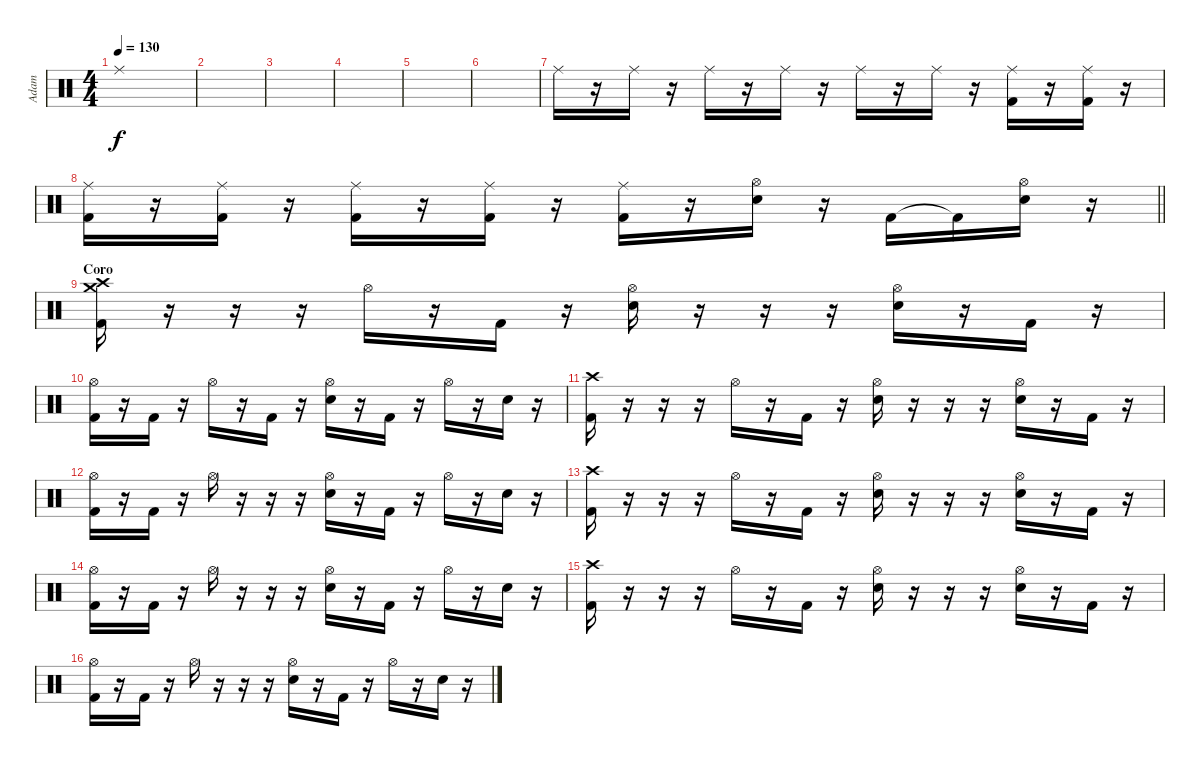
\track ("Adam" "Adam") {instrument percussion}
\staff {score}
\articulation defaults
\ts (4 4)
\tempo 130
\clef neutral
\ks c "Ride (middle)".1{dy f}
|
|
|
|
|
|
"Ride (middle)".16 r.16 "Ride (middle)".16 r.16 "Ride (middle)".16 r.16 "Ride (middle)".16 r.16 "Ride (middle)".16 r.16 "Ride (middle)".16 r.16 ("Ride (middle)" "Kick (hit) 2").16 r.16 ("Ride (middle)" "Kick (hit) 2").16 r.16 |
\barLineRight lightlight
("Ride (middle)" "Kick (hit) 2").16 r.16 ("Ride (middle)" "Kick (hit) 2").16 r.16 ("Ride (middle)" "Kick (hit) 2").16 r.16 ("Ride (middle)" "Kick (hit) 2").16 r.16 ("Ride (middle)" "Kick (hit) 2").16 r.16 ("Hi-Hat (open)" "Snare (hit) 2").16 r.16 "Kick (hit) 2".16 "Kick (hit) 2"{t}.16 ("Hi-Hat (open)" "Snare (hit) 2").16 r.16 |
\section ("" "Coro")
("Crash high (hit)" "Crash medium (hit)" "Kick (hit) 2").16 r.16 r.16 r.16 "Hi-Hat (open)".16 r.16 "Kick (hit) 2".16 r.16 ("Hi-Hat (open)" "Snare (hit) 2").16 r.16 r.16 r.16 ("Hi-Hat (open)" "Snare (hit) 2").16 r.16 "Kick (hit) 2".16 r.16 |
("Hi-Hat (open)" "Kick (hit) 2").16 r.16 "Kick (hit) 2".16 r.16 "Hi-Hat (open)".16 r.16 "Kick (hit) 2".16 r.16 ("Hi-Hat (open)" "Snare (hit) 2").16 r.16 "Kick (hit) 2".16 r.16 "Hi-Hat (open)".16 r.16 "Snare (hit) 2".16 r.16 |
("Crash high (hit)" "Kick (hit) 2").16 r.16 r.16 r.16 "Hi-Hat (open)".16 r.16 "Kick (hit) 2".16 r.16 ("Hi-Hat (open)" "Snare (hit) 2").16 r.16 r.16 r.16 ("Hi-Hat (open)" "Snare (hit) 2").16 r.16 "Kick (hit) 2".16 r.16 |
("Hi-Hat (open)" "Kick (hit) 2").16 r.16 "Kick (hit) 2".16 r.16 "Hi-Hat (open)".16 r.16 r.16 r.16 ("Hi-Hat (open)" "Snare (hit) 2").16 r.16 "Kick (hit) 2".16 r.16 "Hi-Hat (open)".16 r.16 "Snare (hit) 2".16 r.16 |
("Crash high (hit)" "Kick (hit) 2").16 r.16 r.16 r.16 "Hi-Hat (open)".16 r.16 "Kick (hit) 2".16 r.16 ("Hi-Hat (open)" "Snare (hit) 2").16 r.16 r.16 r.16 ("Hi-Hat (open)" "Snare (hit) 2").16 r.16 "Kick (hit) 2".16 r.16 |
("Hi-Hat (open)" "Kick (hit) 2").16 r.16 "Kick (hit) 2".16 r.16 "Hi-Hat (open)".16 r.16 r.16 r.16 ("Hi-Hat (open)" "Snare (hit) 2").16 r.16 "Kick (hit) 2".16 r.16 "Hi-Hat (open)".16 r.16 "Snare (hit) 2".16 r.16 |
("Crash high (hit)" "Kick (hit) 2").16 r.16 r.16 r.16 "Hi-Hat (open)".16 r.16 "Kick (hit) 2".16 r.16 ("Hi-Hat (open)" "Snare (hit) 2").16 r.16 r.16 r.16 ("Hi-Hat (open)" "Snare (hit) 2").16 r.16 "Kick (hit) 2".16 r.16 |
("Hi-Hat (open)" "Kick (hit) 2").16 r.16 "Kick (hit) 2".16 r.16 "Hi-Hat (open)".16 r.16 r.16 r.16 ("Hi-Hat (open)" "Snare (hit) 2").16 r.16 "Kick (hit) 2".16 r.16 "Hi-Hat (open)".16 r.16 "Snare (hit) 2".16 r.16
